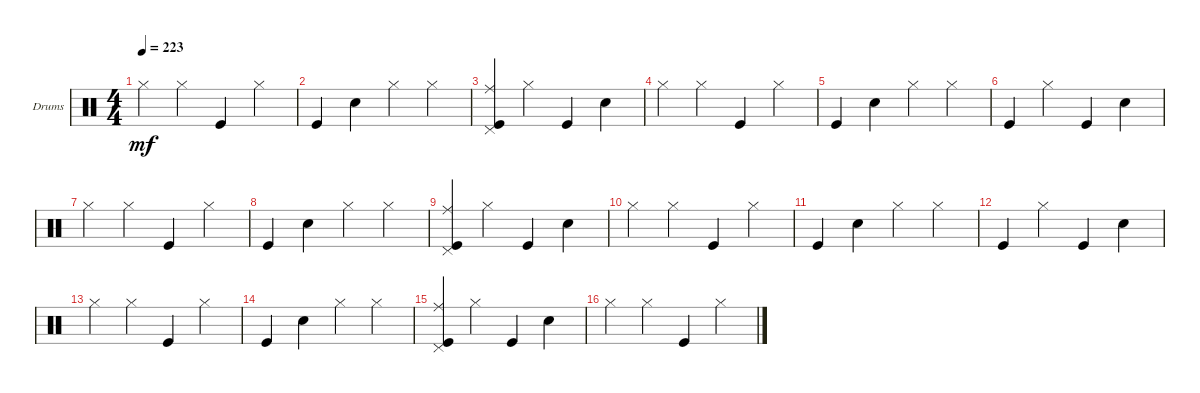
\defaultSystemsLayout 4
\bracketExtendMode groupsimilarinstruments
\firstSystemTrackNameOrientation horizontal
\otherSystemsTrackNameOrientation horizontal
\track ("Drumkit" "Drums") {instrument percussion}
\staff {score}
\articulation defaults
\ts (4 4)
\tempo 223
\clef neutral
\ks c "Hi-Hat (closed)".4{dy mf} "Hi-Hat (closed)".4 "Kick (hit)".4 "Hi-Hat (closed)".4
|
"Kick (hit)".4 "Snare (hit) 2".4 "Hi-Hat (closed)".4 "Hi-Hat (closed)".4 |
("Kick (hit)" "Ride (middle)" "Pedal Hi-Hat (hit)").4 "Hi-Hat (closed)".4 "Kick (hit)".4 "Snare (hit) 2".4 |
"Hi-Hat (closed)".4 "Hi-Hat (closed)".4 "Kick (hit)".4 "Hi-Hat (closed)".4 |
"Kick (hit)".4 "Snare (hit) 2".4 "Hi-Hat (closed)".4 "Hi-Hat (closed)".4 |
"Kick (hit)".4 "Hi-Hat (closed)".4 "Kick (hit)".4 "Snare (hit) 2".4 |
"Hi-Hat (closed)".4 "Hi-Hat (closed)".4 "Kick (hit)".4 "Hi-Hat (closed)".4 |
"Kick (hit)".4 "Snare (hit) 2".4 "Hi-Hat (closed)".4 "Hi-Hat (closed)".4 |
("Kick (hit)" "Ride (middle)" "Pedal Hi-Hat (hit)").4 "Hi-Hat (closed)".4 "Kick (hit)".4 "Snare (hit) 2".4 |
"Hi-Hat (closed)".4 "Hi-Hat (closed)".4 "Kick (hit)".4 "Hi-Hat (closed)".4 |
"Kick (hit)".4 "Snare (hit) 2".4 "Hi-Hat (closed)".4 "Hi-Hat (closed)".4 |
"Kick (hit)".4 "Hi-Hat (closed)".4 "Kick (hit)".4 "Snare (hit) 2".4 |
"Hi-Hat (closed)".4 "Hi-Hat (closed)".4 "Kick (hit)".4 "Hi-Hat (closed)".4 |
"Kick (hit)".4 "Snare (hit) 2".4 "Hi-Hat (closed)".4 "Hi-Hat (closed)".4 |
("Kick (hit)" "Ride (middle)" "Pedal Hi-Hat (hit)").4 "Hi-Hat (closed)".4 "Kick (hit)".4 "Snare (hit) 2".4 |
"Hi-Hat (closed)".4 "Hi-Hat (closed)".4 "Kick (hit)".4 "Hi-Hat (closed)".4
